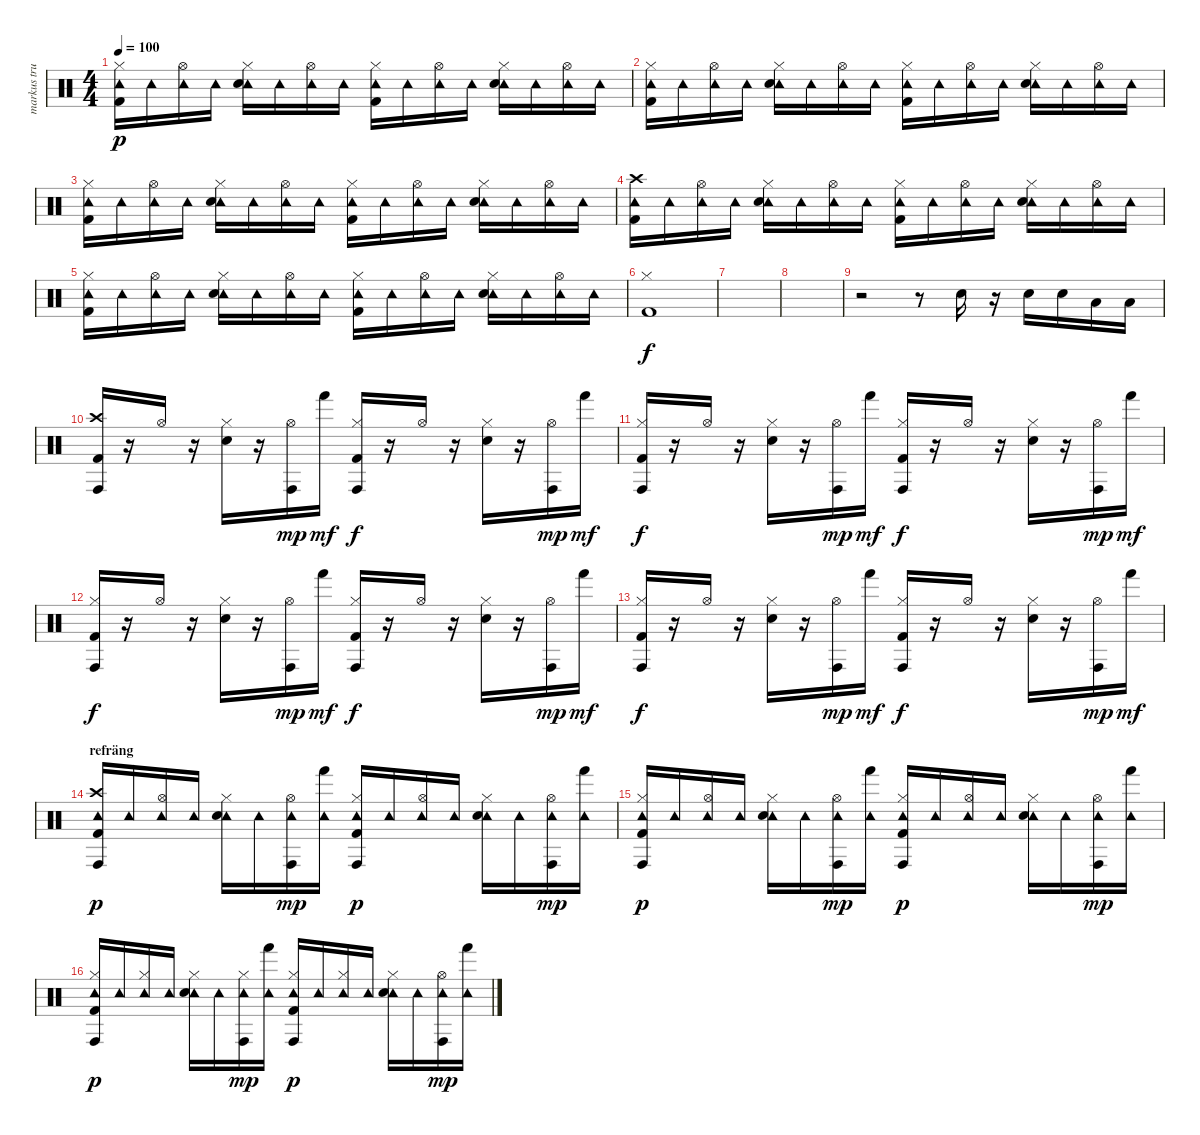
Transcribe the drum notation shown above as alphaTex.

\track ("markus trummor" "markus tru") {instrument percussion}
\staff {score}
\articulation defaults
\ts (4 4)
\tempo 100
\clef neutral
\ks c
("Tambourine (hit)" "Hi-Hat (closed)" "Kick (hit) 2").16{dy p} "Tambourine (hit)".16 ("Tambourine (hit)" "Hi-Hat (open)").16 "Tambourine (hit)".16 ("Tambourine (hit)" "Hi-Hat (closed)" "Snare (hit) 2").16 "Tambourine (hit)".16 ("Tambourine (hit)" "Hi-Hat (open)").16 "Tambourine (hit)".16 ("Tambourine (hit)" "Hi-Hat (closed)" "Kick (hit) 2").16 "Tambourine (hit)".16 ("Tambourine (hit)" "Hi-Hat (open)").16 "Tambourine (hit)".16 ("Tambourine (hit)" "Hi-Hat (closed)" "Snare (hit) 2").16 "Tambourine (hit)".16 ("Tambourine (hit)" "Hi-Hat (open)").16 "Tambourine (hit)".16 |
("Tambourine (hit)" "Hi-Hat (closed)" "Kick (hit) 2").16 "Tambourine (hit)".16 ("Tambourine (hit)" "Hi-Hat (open)").16 "Tambourine (hit)".16 ("Tambourine (hit)" "Hi-Hat (closed)" "Snare (hit) 2").16 "Tambourine (hit)".16 ("Tambourine (hit)" "Hi-Hat (open)").16 "Tambourine (hit)".16 ("Tambourine (hit)" "Hi-Hat (closed)" "Kick (hit) 2").16 "Tambourine (hit)".16 ("Tambourine (hit)" "Hi-Hat (open)").16 "Tambourine (hit)".16 ("Tambourine (hit)" "Hi-Hat (closed)" "Snare (hit) 2").16 "Tambourine (hit)".16 ("Tambourine (hit)" "Hi-Hat (open)").16 "Tambourine (hit)".16 |
("Tambourine (hit)" "Hi-Hat (closed)" "Kick (hit) 2").16 "Tambourine (hit)".16 ("Tambourine (hit)" "Hi-Hat (open)").16 "Tambourine (hit)".16 ("Tambourine (hit)" "Hi-Hat (closed)" "Snare (hit) 2").16 "Tambourine (hit)".16 ("Tambourine (hit)" "Hi-Hat (open)").16 "Tambourine (hit)".16 ("Tambourine (hit)" "Hi-Hat (closed)" "Kick (hit) 2").16 "Tambourine (hit)".16 ("Tambourine (hit)" "Hi-Hat (open)").16 "Tambourine (hit)".16 ("Tambourine (hit)" "Hi-Hat (closed)" "Snare (hit) 2").16 "Tambourine (hit)".16 ("Tambourine (hit)" "Hi-Hat (open)").16 "Tambourine (hit)".16 |
("Tambourine (hit)" "Crash high (hit)" "Kick (hit) 2").16 "Tambourine (hit)".16 ("Tambourine (hit)" "Hi-Hat (open)").16 "Tambourine (hit)".16 ("Tambourine (hit)" "Hi-Hat (closed)" "Snare (hit) 2").16 "Tambourine (hit)".16 ("Tambourine (hit)" "Hi-Hat (open)").16 "Tambourine (hit)".16 ("Tambourine (hit)" "Hi-Hat (closed)" "Kick (hit) 2").16 "Tambourine (hit)".16 ("Tambourine (hit)" "Hi-Hat (open)").16 "Tambourine (hit)".16 ("Tambourine (hit)" "Hi-Hat (closed)" "Snare (hit) 2").16 "Tambourine (hit)".16 ("Tambourine (hit)" "Hi-Hat (open)").16 "Tambourine (hit)".16 |
("Tambourine (hit)" "Hi-Hat (closed)" "Kick (hit) 2").16 "Tambourine (hit)".16 ("Tambourine (hit)" "Hi-Hat (open)").16 "Tambourine (hit)".16 ("Tambourine (hit)" "Hi-Hat (closed)" "Snare (hit) 2").16 "Tambourine (hit)".16 ("Tambourine (hit)" "Hi-Hat (open)").16 "Tambourine (hit)".16 ("Tambourine (hit)" "Hi-Hat (closed)" "Kick (hit) 2").16 "Tambourine (hit)".16 ("Tambourine (hit)" "Hi-Hat (open)").16 "Tambourine (hit)".16 ("Tambourine (hit)" "Hi-Hat (closed)" "Snare (hit) 2").16 "Tambourine (hit)".16 ("Tambourine (hit)" "Hi-Hat (open)").16 "Tambourine (hit)".16 |
("Hi-Hat (closed)" "Kick (hit) 2").1{dy f} |
|
|
r.2 r.8 "Snare (hit) 2".16 r.16 "Snare (hit) 2".16 "Snare (hit) 2".16 "Low Tom (hit)".16 "Low Tom (hit)".16 |
("Crash high (hit)" "Conga high (hit)" "Kick (hit) 2").16 r.16 "Hi-Hat (open)".16 r.16 ("Hi-Hat (closed)" "Snare (hit) 2").16 r.16 ("Conga high (hit)" "Hi-Hat (open)").16{dy mp} "Hand (hit)".16{dy mf} ("Conga high (hit)" "Hi-Hat (closed)" "Kick (hit) 2").16{dy f} r.16 "Hi-Hat (open)".16 r.16 ("Hi-Hat (closed)" "Snare (hit) 2").16 r.16 ("Conga high (hit)" "Hi-Hat (open)").16{dy mp} "Hand (hit)".16{dy mf} |
("Conga high (hit)" "Hi-Hat (closed)" "Kick (hit) 2").16{dy f} r.16 "Hi-Hat (open)".16 r.16 ("Hi-Hat (closed)" "Snare (hit) 2").16 r.16 ("Conga high (hit)" "Hi-Hat (open)").16{dy mp} "Hand (hit)".16{dy mf} ("Conga high (hit)" "Hi-Hat (closed)" "Kick (hit) 2").16{dy f} r.16 "Hi-Hat (open)".16 r.16 ("Hi-Hat (closed)" "Snare (hit) 2").16 r.16 ("Conga high (hit)" "Hi-Hat (open)").16{dy mp} "Hand (hit)".16{dy mf} |
("Conga high (hit)" "Hi-Hat (closed)" "Kick (hit) 2").16{dy f} r.16 "Hi-Hat (open)".16 r.16 ("Hi-Hat (closed)" "Snare (hit) 2").16 r.16 ("Conga high (hit)" "Hi-Hat (open)").16{dy mp} "Hand (hit)".16{dy mf} ("Conga high (hit)" "Hi-Hat (closed)" "Kick (hit) 2").16{dy f} r.16 "Hi-Hat (open)".16 r.16 ("Hi-Hat (closed)" "Snare (hit) 2").16 r.16 ("Conga high (hit)" "Hi-Hat (open)").16{dy mp} "Hand (hit)".16{dy mf} |
("Conga high (hit)" "Hi-Hat (closed)" "Kick (hit) 2").16{dy f} r.16 "Hi-Hat (open)".16 r.16 ("Hi-Hat (closed)" "Snare (hit) 2").16 r.16 ("Conga high (hit)" "Hi-Hat (open)").16{dy mp} "Hand (hit)".16{dy mf} ("Conga high (hit)" "Hi-Hat (closed)" "Kick (hit) 2").16{dy f} r.16 "Hi-Hat (open)".16 r.16 ("Hi-Hat (closed)" "Snare (hit) 2").16 r.16 ("Conga high (hit)" "Hi-Hat (open)").16{dy mp} "Hand (hit)".16{dy mf} |
\section ("" "refräng")
("Tambourine (hit)" "Conga high (hit)" "Crash high (hit)" "Kick (hit) 2").16{dy p} "Tambourine (hit)".16 ("Tambourine (hit)" "Hi-Hat (open)").16 "Tambourine (hit)".16 ("Tambourine (hit)" "Hi-Hat (closed)" "Snare (hit) 2").16 "Tambourine (hit)".16 ("Tambourine (hit)" "Conga high (hit)" "Hi-Hat (open)").16{dy mp} ("Tambourine (hit)" "Hand (hit)").16 ("Tambourine (hit)" "Conga high (hit)" "Hi-Hat (closed)" "Kick (hit) 2").16{dy p} "Tambourine (hit)".16 ("Tambourine (hit)" "Hi-Hat (open)").16 "Tambourine (hit)".16 ("Tambourine (hit)" "Hi-Hat (closed)" "Snare (hit) 2").16 "Tambourine (hit)".16 ("Tambourine (hit)" "Conga high (hit)" "Hi-Hat (open)").16{dy mp} ("Tambourine (hit)" "Hand (hit)").16 |
("Tambourine (hit)" "Conga high (hit)" "Hi-Hat (closed)" "Kick (hit) 2").16{dy p} "Tambourine (hit)".16 ("Tambourine (hit)" "Hi-Hat (open)").16 "Tambourine (hit)".16 ("Tambourine (hit)" "Hi-Hat (closed)" "Snare (hit) 2").16 "Tambourine (hit)".16 ("Tambourine (hit)" "Conga high (hit)" "Hi-Hat (open)").16{dy mp} ("Tambourine (hit)" "Hand (hit)").16 ("Tambourine (hit)" "Conga high (hit)" "Hi-Hat (closed)" "Kick (hit) 2").16{dy p} "Tambourine (hit)".16 ("Tambourine (hit)" "Hi-Hat (open)").16 "Tambourine (hit)".16 ("Tambourine (hit)" "Hi-Hat (closed)" "Snare (hit) 2").16 "Tambourine (hit)".16 ("Tambourine (hit)" "Conga high (hit)" "Hi-Hat (open)").16{dy mp} ("Tambourine (hit)" "Hand (hit)").16 |
("Tambourine (hit)" "Conga high (hit)" "Hi-Hat (closed)" "Kick (hit) 2").16{dy p} "Tambourine (hit)".16 ("Tambourine (hit)" "Hi-Hat (closed)").16 "Tambourine (hit)".16 ("Tambourine (hit)" "Hi-Hat (closed)" "Snare (hit) 2").16 "Tambourine (hit)".16 ("Tambourine (hit)" "Conga high (hit)" "Hi-Hat (closed)").16{dy mp} ("Tambourine (hit)" "Hand (hit)").16 ("Tambourine (hit)" "Conga high (hit)" "Hi-Hat (closed)" "Kick (hit) 2").16{dy p} "Tambourine (hit)".16 ("Tambourine (hit)" "Hi-Hat (closed)").16 "Tambourine (hit)".16 ("Tambourine (hit)" "Hi-Hat (closed)" "Snare (hit) 2").16 "Tambourine (hit)".16 ("Tambourine (hit)" "Conga high (hit)" "Hi-Hat (open)").16{dy mp} ("Tambourine (hit)" "Hand (hit)").16
